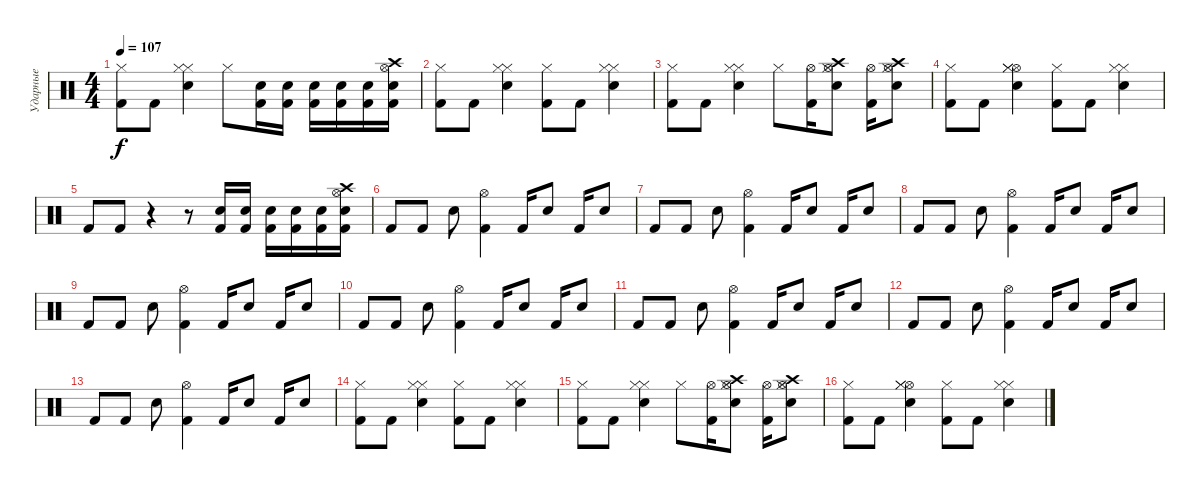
\track ("Ударные" "Ударные") {instrument percussion}
\staff {score}
\articulation defaults
\ts (4 4)
\tempo 107
\clef neutral
\ks c
("Hi-Hat (closed)" "Kick (hit) 2").8{dy f} "Kick (hit) 2".8 ("Hi-Hat (closed)" "Hi-Hat (closed)" "Electric Snare (hit)").4 "Hi-Hat (closed)".8 ("Kick (hit) 2" "Electric Snare (hit)").16 ("Kick (hit) 2" "Electric Snare (hit)").16 ("Kick (hit) 2" "Electric Snare (hit)").16 ("Kick (hit) 2" "Electric Snare (hit)").16 ("Kick (hit) 2" "Electric Snare (hit)").16 ("Crash high (hit)" "Hi-Hat (open)" "Kick (hit) 2" "Electric Snare (hit)").16 |
("Hi-Hat (closed)" "Kick (hit) 2").8 "Kick (hit) 2".8 ("Hi-Hat (closed)" "Hi-Hat (closed)" "Electric Snare (hit)").4 ("Hi-Hat (closed)" "Kick (hit) 2").8 "Kick (hit) 2".8 ("Hi-Hat (closed)" "Hi-Hat (closed)" "Electric Snare (hit)").4 |
("Hi-Hat (closed)" "Kick (hit) 2").8 "Kick (hit) 2".8 ("Hi-Hat (closed)" "Hi-Hat (closed)" "Electric Snare (hit)").4 "Hi-Hat (closed)".8 ("Hi-Hat (open)" "Kick (hit) 2").16 ("Hi-Hat (closed)" "Crash high (hit)" "Hi-Hat (open)" "Electric Snare (hit)").8 ("Hi-Hat (open)" "Kick (hit) 2").16 ("Hi-Hat (closed)" "Crash high (hit)" "Hi-Hat (open)" "Electric Snare (hit)").8 |
("Hi-Hat (closed)" "Kick (hit) 2").8 "Kick (hit) 2".8 ("Hi-Hat (open)" "Hi-Hat (closed)" "Hi-Hat (closed)" "Electric Snare (hit)").4 ("Hi-Hat (closed)" "Kick (hit) 2").8 "Kick (hit) 2".8 ("Hi-Hat (closed)" "Hi-Hat (closed)" "Electric Snare (hit)").4 |
"Kick (hit) 2".8 "Kick (hit) 2".8 r.4 r.8 ("Kick (hit) 2" "Electric Snare (hit)").16 ("Kick (hit) 2" "Electric Snare (hit)").16 ("Kick (hit) 2" "Electric Snare (hit)").16 ("Kick (hit) 2" "Electric Snare (hit)").16 ("Kick (hit) 2" "Electric Snare (hit)").16 ("Crash high (hit)" "Hi-Hat (open)" "Kick (hit) 2" "Electric Snare (hit)").16 |
"Kick (hit) 2".8 "Kick (hit) 2".8 "Electric Snare (hit)".8 ("Hi-Hat (open)" "Kick (hit) 2").4 "Kick (hit) 2".16 "Electric Snare (hit)".8 "Kick (hit) 2".16 "Electric Snare (hit)".8 |
"Kick (hit) 2".8 "Kick (hit) 2".8 "Electric Snare (hit)".8 ("Hi-Hat (open)" "Kick (hit) 2").4 "Kick (hit) 2".16 "Electric Snare (hit)".8 "Kick (hit) 2".16 "Electric Snare (hit)".8 |
"Kick (hit) 2".8 "Kick (hit) 2".8 "Electric Snare (hit)".8 ("Hi-Hat (open)" "Kick (hit) 2").4 "Kick (hit) 2".16 "Electric Snare (hit)".8 "Kick (hit) 2".16 "Electric Snare (hit)".8 |
"Kick (hit) 2".8 "Kick (hit) 2".8 "Electric Snare (hit)".8 ("Hi-Hat (open)" "Kick (hit) 2").4 "Kick (hit) 2".16 "Electric Snare (hit)".8 "Kick (hit) 2".16 "Electric Snare (hit)".8 |
"Kick (hit) 2".8 "Kick (hit) 2".8 "Electric Snare (hit)".8 ("Hi-Hat (open)" "Kick (hit) 2").4 "Kick (hit) 2".16 "Electric Snare (hit)".8 "Kick (hit) 2".16 "Electric Snare (hit)".8 |
"Kick (hit) 2".8 "Kick (hit) 2".8 "Electric Snare (hit)".8 ("Hi-Hat (open)" "Kick (hit) 2").4 "Kick (hit) 2".16 "Electric Snare (hit)".8 "Kick (hit) 2".16 "Electric Snare (hit)".8 |
"Kick (hit) 2".8 "Kick (hit) 2".8 "Electric Snare (hit)".8 ("Hi-Hat (open)" "Kick (hit) 2").4 "Kick (hit) 2".16 "Electric Snare (hit)".8 "Kick (hit) 2".16 "Electric Snare (hit)".8 |
"Kick (hit) 2".8 "Kick (hit) 2".8 "Electric Snare (hit)".8 ("Hi-Hat (open)" "Kick (hit) 2").4 "Kick (hit) 2".16 "Electric Snare (hit)".8 "Kick (hit) 2".16 "Electric Snare (hit)".8 |
("Hi-Hat (closed)" "Kick (hit) 2").8 "Kick (hit) 2".8 ("Hi-Hat (closed)" "Hi-Hat (closed)" "Electric Snare (hit)").4 ("Hi-Hat (closed)" "Kick (hit) 2").8 "Kick (hit) 2".8 ("Hi-Hat (closed)" "Hi-Hat (closed)" "Electric Snare (hit)").4 |
("Hi-Hat (closed)" "Kick (hit) 2").8 "Kick (hit) 2".8 ("Hi-Hat (closed)" "Hi-Hat (closed)" "Electric Snare (hit)").4 "Hi-Hat (closed)".8 ("Hi-Hat (open)" "Kick (hit) 2").16 ("Hi-Hat (closed)" "Crash high (hit)" "Hi-Hat (open)" "Electric Snare (hit)").8 ("Hi-Hat (open)" "Kick (hit) 2").16 ("Hi-Hat (closed)" "Crash high (hit)" "Hi-Hat (open)" "Electric Snare (hit)").8 |
("Hi-Hat (closed)" "Kick (hit) 2").8 "Kick (hit) 2".8 ("Hi-Hat (open)" "Hi-Hat (closed)" "Hi-Hat (closed)" "Electric Snare (hit)").4 ("Hi-Hat (closed)" "Kick (hit) 2").8 "Kick (hit) 2".8 ("Hi-Hat (closed)" "Hi-Hat (closed)" "Electric Snare (hit)").4
